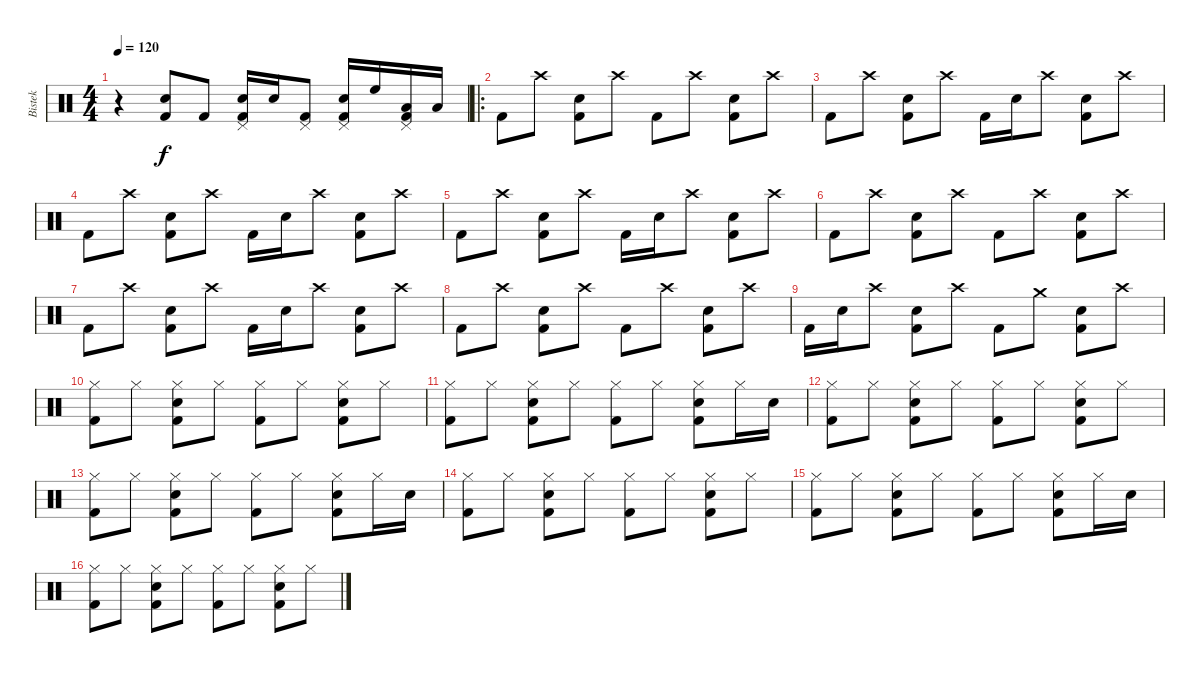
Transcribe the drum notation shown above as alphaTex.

\track ("Bistek" "Bistek") {instrument percussion}
\staff {score}
\articulation defaults
\ts (4 4)
\tempo 120
\clef neutral
\ks c
r.4{dy f} ("Snare (hit) 2" "Kick (hit) 2").8 "Kick (hit) 2".8 ("Pedal Hi-Hat (hit)" "Snare (hit) 2" "Kick (hit) 2").16 "Snare (hit) 2".16 ("Pedal Hi-Hat (hit)" "Kick (hit) 2").8 ("Pedal Hi-Hat (hit)" "Snare (hit) 2" "Kick (hit) 2").16 "High Floor Tom (hit)".16 ("Pedal Hi-Hat (hit)" "Low Tom (hit)" "Kick (hit) 2").16 "Low Floor Tom (hit)".16 |
\ro "Kick (hit) 2".8 "Crash high (hit)".8
("Snare (hit) 2" "Kick (hit) 2").8 "Crash high (hit)".8 "Kick (hit) 2".8 "Crash high (hit)".8 ("Snare (hit) 2" "Kick (hit) 2").8 "Crash high (hit)".8 |
"Kick (hit) 2".8 "Crash high (hit)".8 ("Snare (hit) 2" "Kick (hit) 2").8 "Crash high (hit)".8 "Kick (hit) 2".16 "Snare (hit) 2".16 "Crash high (hit)".8 ("Snare (hit) 2" "Kick (hit) 2").8 "Crash high (hit)".8 |
"Kick (hit) 2".8 "Crash high (hit)".8 ("Snare (hit) 2" "Kick (hit) 2").8 "Crash high (hit)".8 "Kick (hit) 2".16 "Snare (hit) 2".16 "Crash high (hit)".8 ("Snare (hit) 2" "Kick (hit) 2").8 "Crash high (hit)".8 |
"Kick (hit) 2".8 "Crash high (hit)".8 ("Snare (hit) 2" "Kick (hit) 2").8 "Crash high (hit)".8 "Kick (hit) 2".16 "Snare (hit) 2".16 "Crash high (hit)".8 ("Snare (hit) 2" "Kick (hit) 2").8 "Crash high (hit)".8 |
"Kick (hit) 2".8 "Crash high (hit)".8 ("Snare (hit) 2" "Kick (hit) 2").8 "Crash high (hit)".8 "Kick (hit) 2".8 "Crash high (hit)".8 ("Snare (hit) 2" "Kick (hit) 2").8 "Crash high (hit)".8 |
"Kick (hit) 2".8 "Crash high (hit)".8 ("Snare (hit) 2" "Kick (hit) 2").8 "Crash high (hit)".8 "Kick (hit) 2".16 "Snare (hit) 2".16 "Crash high (hit)".8 ("Snare (hit) 2" "Kick (hit) 2").8 "Crash high (hit)".8 |
"Kick (hit) 2".8 "Crash high (hit)".8 ("Snare (hit) 2" "Kick (hit) 2").8 "Crash high (hit)".8 "Kick (hit) 2".8 "Crash high (hit)".8 ("Snare (hit) 2" "Kick (hit) 2").8 "Crash high (hit)".8 |
"Kick (hit) 2".16 "Snare (hit) 2".16 "Crash high (hit)".8 ("Snare (hit) 2" "Kick (hit) 2").8 "Crash high (hit)".8 "Kick (hit) 2".8 "Crash medium (hit)".8 ("Snare (hit) 2" "Kick (hit) 2").8 "Crash high (hit)".8 |
("Hi-Hat (closed)" "Kick (hit) 2").8 "Hi-Hat (closed)".8 ("Hi-Hat (closed)" "Snare (hit) 2" "Kick (hit) 2").8 "Hi-Hat (closed)".8 ("Hi-Hat (closed)" "Kick (hit) 2").8 "Hi-Hat (closed)".8 ("Hi-Hat (closed)" "Snare (hit) 2" "Kick (hit) 2").8 "Hi-Hat (closed)".8 |
("Hi-Hat (closed)" "Kick (hit) 2").8 "Hi-Hat (closed)".8 ("Hi-Hat (closed)" "Snare (hit) 2" "Kick (hit) 2").8 "Hi-Hat (closed)".8 ("Hi-Hat (closed)" "Kick (hit) 2").8 "Hi-Hat (closed)".8 ("Hi-Hat (closed)" "Snare (hit) 2" "Kick (hit) 2").8 "Hi-Hat (closed)".16 "Snare (hit) 2".16 |
("Hi-Hat (closed)" "Kick (hit) 2").8 "Hi-Hat (closed)".8 ("Hi-Hat (closed)" "Snare (hit) 2" "Kick (hit) 2").8 "Hi-Hat (closed)".8 ("Hi-Hat (closed)" "Kick (hit) 2").8 "Hi-Hat (closed)".8 ("Hi-Hat (closed)" "Snare (hit) 2" "Kick (hit) 2").8 "Hi-Hat (closed)".8 |
("Hi-Hat (closed)" "Kick (hit) 2").8 "Hi-Hat (closed)".8 ("Hi-Hat (closed)" "Snare (hit) 2" "Kick (hit) 2").8 "Hi-Hat (closed)".8 ("Hi-Hat (closed)" "Kick (hit) 2").8 "Hi-Hat (closed)".8 ("Hi-Hat (closed)" "Snare (hit) 2" "Kick (hit) 2").8 "Hi-Hat (closed)".16 "Snare (hit) 2".16 |
("Hi-Hat (closed)" "Kick (hit) 2").8 "Hi-Hat (closed)".8 ("Hi-Hat (closed)" "Snare (hit) 2" "Kick (hit) 2").8 "Hi-Hat (closed)".8 ("Hi-Hat (closed)" "Kick (hit) 2").8 "Hi-Hat (closed)".8 ("Hi-Hat (closed)" "Snare (hit) 2" "Kick (hit) 2").8 "Hi-Hat (closed)".8 |
("Hi-Hat (closed)" "Kick (hit) 2").8 "Hi-Hat (closed)".8 ("Hi-Hat (closed)" "Snare (hit) 2" "Kick (hit) 2").8 "Hi-Hat (closed)".8 ("Hi-Hat (closed)" "Kick (hit) 2").8 "Hi-Hat (closed)".8 ("Hi-Hat (closed)" "Snare (hit) 2" "Kick (hit) 2").8 "Hi-Hat (closed)".16 "Snare (hit) 2".16 |
("Hi-Hat (closed)" "Kick (hit) 2").8 "Hi-Hat (closed)".8 ("Hi-Hat (closed)" "Snare (hit) 2" "Kick (hit) 2").8 "Hi-Hat (closed)".8 ("Hi-Hat (closed)" "Kick (hit) 2").8 "Hi-Hat (closed)".8 ("Hi-Hat (closed)" "Snare (hit) 2" "Kick (hit) 2").8 "Hi-Hat (closed)".8
